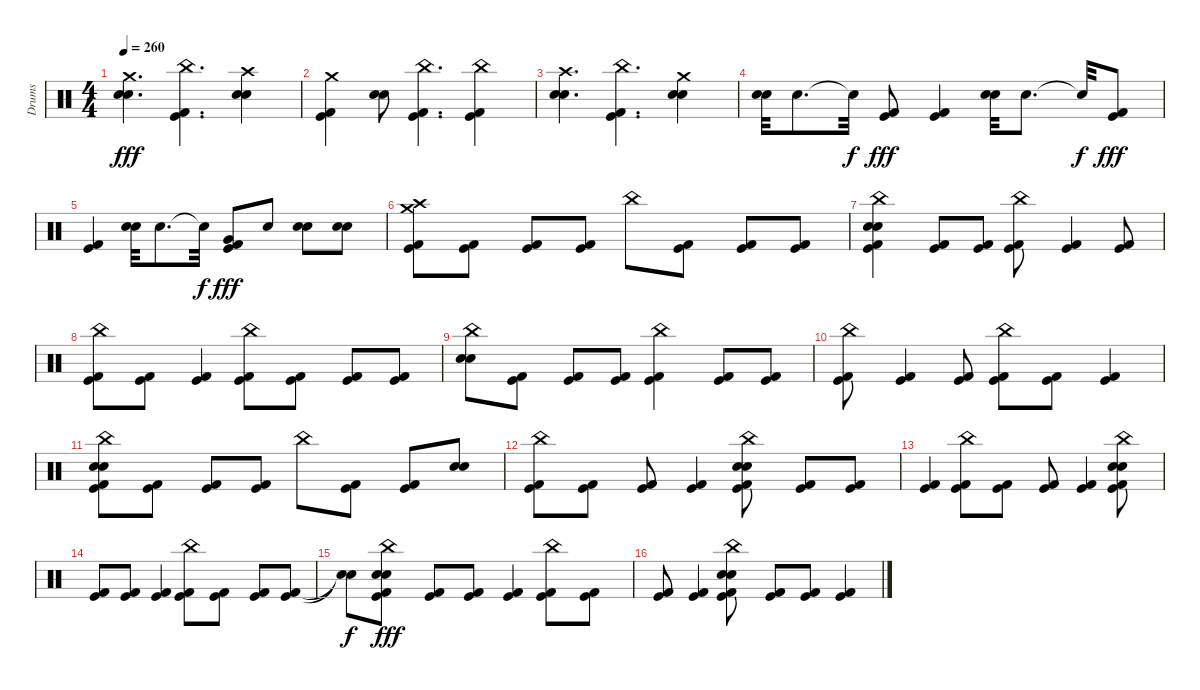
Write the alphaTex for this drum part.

\track ("Drums" "Drums") {instrument percussion}
\staff {score}
\articulation defaults
\ts (4 4)
\tempo 260
\clef neutral
\ks c
("Electric Snare (hit)" "Electric Snare (hit)" "Crash medium (hit)").4{d dy fff} ("Kick (hit)" "Kick (hit) 2" "China (hit)").4{d} ("Electric Snare (hit)" "Electric Snare (hit)" "Crash high (hit)").4 |
("Kick (hit)" "Kick (hit) 2" "Crash medium (hit)").4 ("Electric Snare (hit)" "Electric Snare (hit)").8 ("Kick (hit)" "Kick (hit) 2" "China (hit)").4{d} ("Kick (hit)" "Kick (hit) 2" "China (hit)").4 |
("Electric Snare (hit)" "Electric Snare (hit)" "Crash high (hit)").4{d} ("Kick (hit)" "Kick (hit) 2" "China (hit)").4{d} ("Electric Snare (hit)" "Electric Snare (hit)" "Crash medium (hit)").4 |
("Electric Snare (hit)" "Electric Snare (hit)").32 "Electric Snare (hit)".8{d} "Snare (hit)"{t}.32{dy f} ("Kick (hit)" "Kick (hit) 2").8{dy fff} ("Kick (hit)" "Kick (hit) 2").4 ("Electric Snare (hit)" "Electric Snare (hit)").32 "Electric Snare (hit)".8{d} "Snare (hit)"{t}.32{dy f} ("Kick (hit)" "Kick (hit) 2").8{dy fff} |
("Kick (hit)" "Kick (hit) 2").4 ("Electric Snare (hit)" "Electric Snare (hit)").32 "Electric Snare (hit)".8{d} "Snare (hit)"{t}.32{dy f} ("Kick (hit)" "Kick (hit) 2" "Very Low Tom (hit)").8{dy fff} "Electric Snare (hit)".8 ("Electric Snare (hit)" "Electric Snare (hit)").8 ("Electric Snare (hit)" "Electric Snare (hit)").8 |
("Kick (hit)" "Kick (hit) 2" "Crash medium (hit)" "Crash high (hit)").8 ("Kick (hit)" "Kick (hit) 2").8 ("Kick (hit)" "Kick (hit) 2").8 ("Kick (hit)" "Kick (hit) 2").8 "China (hit)".8 ("Kick (hit)" "Kick (hit) 2").8 ("Kick (hit)" "Kick (hit) 2").8 ("Kick (hit)" "Kick (hit) 2").8 |
("Kick (hit)" "Kick (hit) 2" "Electric Snare (hit)" "Electric Snare (hit)" "China (hit)").4 ("Kick (hit)" "Kick (hit) 2").8 ("Kick (hit)" "Kick (hit) 2").8 ("Kick (hit)" "Kick (hit) 2" "China (hit)").8 ("Kick (hit)" "Kick (hit) 2").4 ("Kick (hit)" "Kick (hit) 2").8 |
("Kick (hit)" "Kick (hit) 2" "China (hit)").8 ("Kick (hit)" "Kick (hit) 2").8 ("Kick (hit)" "Kick (hit) 2").4 ("Kick (hit)" "Kick (hit) 2" "China (hit)").8 ("Kick (hit)" "Kick (hit) 2").8 ("Kick (hit)" "Kick (hit) 2").8 ("Kick (hit)" "Kick (hit) 2").8 |
("Electric Snare (hit)" "Electric Snare (hit)" "China (hit)").8 ("Kick (hit)" "Kick (hit) 2").8 ("Kick (hit)" "Kick (hit) 2").8 ("Kick (hit)" "Kick (hit) 2").8 ("Kick (hit)" "Kick (hit) 2" "China (hit)").4 ("Kick (hit)" "Kick (hit) 2").8 ("Kick (hit)" "Kick (hit) 2").8 |
("Kick (hit)" "Kick (hit) 2" "China (hit)").8 ("Kick (hit)" "Kick (hit) 2").4 ("Kick (hit)" "Kick (hit) 2").8 ("Kick (hit)" "Kick (hit) 2" "China (hit)").8 ("Kick (hit)" "Kick (hit) 2").8 ("Kick (hit)" "Kick (hit) 2").4 |
("Kick (hit)" "Kick (hit) 2" "Electric Snare (hit)" "Electric Snare (hit)" "China (hit)").8 ("Kick (hit)" "Kick (hit) 2").8 ("Kick (hit)" "Kick (hit) 2").8 ("Kick (hit)" "Kick (hit) 2").8 "China (hit)".8 ("Kick (hit)" "Kick (hit) 2").8 ("Kick (hit)" "Kick (hit) 2").8 ("Electric Snare (hit)" "Electric Snare (hit)").8 |
("Kick (hit)" "Kick (hit) 2" "China (hit)").8 ("Kick (hit)" "Kick (hit) 2").8 ("Kick (hit)" "Kick (hit) 2").8 ("Kick (hit)" "Kick (hit) 2").4 ("Kick (hit)" "Kick (hit) 2" "Electric Snare (hit)" "Electric Snare (hit)" "China (hit)").8 ("Kick (hit)" "Kick (hit) 2").8 ("Kick (hit)" "Kick (hit) 2").8 |
("Kick (hit)" "Kick (hit) 2").4 ("Kick (hit)" "Kick (hit) 2" "China (hit)").8 ("Kick (hit)" "Kick (hit) 2").8 ("Kick (hit)" "Kick (hit) 2").8 ("Kick (hit)" "Kick (hit) 2").4 ("Kick (hit)" "Kick (hit) 2" "Electric Snare (hit)" "Electric Snare (hit)" "China (hit)").8 |
("Kick (hit)" "Kick (hit) 2").8 ("Kick (hit)" "Kick (hit) 2").8 ("Kick (hit)" "Kick (hit) 2").4 ("Kick (hit)" "Kick (hit) 2" "China (hit)").8 ("Kick (hit)" "Kick (hit) 2").8 ("Kick (hit)" "Kick (hit) 2").8 ("Kick (hit)" "Kick (hit) 2").8 |
("Snare (hit)"{t} "Snare (hit)"{t}).8{dy f} ("Kick (hit)" "Kick (hit) 2" "Electric Snare (hit)" "Electric Snare (hit)" "China (hit)").8{dy fff} ("Kick (hit)" "Kick (hit) 2").8 ("Kick (hit)" "Kick (hit) 2").8 ("Kick (hit)" "Kick (hit) 2").4 ("Kick (hit)" "Kick (hit) 2" "China (hit)").8 ("Kick (hit)" "Kick (hit) 2").8 |
("Kick (hit)" "Kick (hit) 2").8 ("Kick (hit)" "Kick (hit) 2").4 ("Kick (hit)" "Kick (hit) 2" "Electric Snare (hit)" "Electric Snare (hit)" "China (hit)").8 ("Kick (hit)" "Kick (hit) 2").8 ("Kick (hit)" "Kick (hit) 2").8 ("Kick (hit)" "Kick (hit) 2").4
